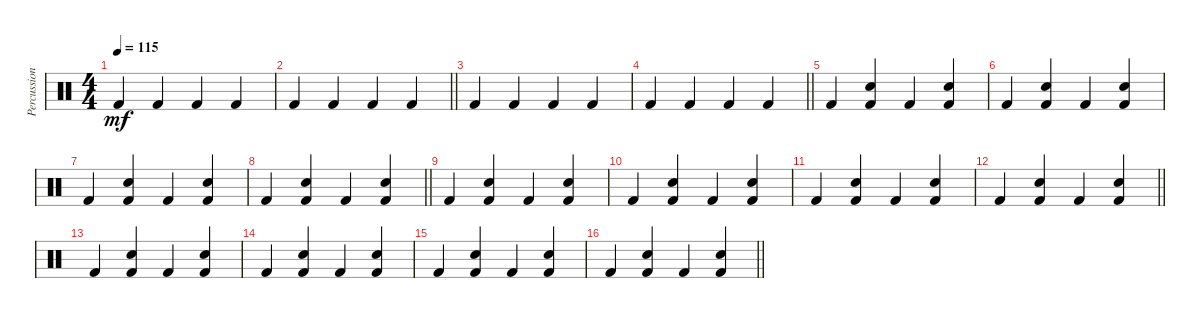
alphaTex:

\track ("Percussion" "Percussion") {instrument percussion}
\staff {score}
\articulation defaults
\ts (4 4)
\tempo 115
\clef neutral
\ks c "Kick (hit) 2".4{dy mf} "Kick (hit) 2".4 "Kick (hit) 2".4 "Kick (hit) 2".4
|
\barLineRight lightlight "Kick (hit) 2".4 "Kick (hit) 2".4 "Kick (hit) 2".4 "Kick (hit) 2".4
|
"Kick (hit) 2".4 "Kick (hit) 2".4 "Kick (hit) 2".4 "Kick (hit) 2".4 |
\barLineRight lightlight "Kick (hit) 2".4 "Kick (hit) 2".4 "Kick (hit) 2".4 "Kick (hit) 2".4
|
"Kick (hit) 2".4 ("Kick (hit) 2" "Snare (hit) 2").4 "Kick (hit) 2".4 ("Kick (hit) 2" "Snare (hit) 2").4 |
"Kick (hit) 2".4 ("Kick (hit) 2" "Snare (hit) 2").4 "Kick (hit) 2".4 ("Kick (hit) 2" "Snare (hit) 2").4 |
"Kick (hit) 2".4 ("Kick (hit) 2" "Snare (hit) 2").4 "Kick (hit) 2".4 ("Kick (hit) 2" "Snare (hit) 2").4 |
\barLineRight lightlight "Kick (hit) 2".4
("Kick (hit) 2" "Snare (hit) 2").4 "Kick (hit) 2".4 ("Kick (hit) 2" "Snare (hit) 2").4 |
"Kick (hit) 2".4 ("Kick (hit) 2" "Snare (hit) 2").4 "Kick (hit) 2".4 ("Kick (hit) 2" "Snare (hit) 2").4 |
"Kick (hit) 2".4 ("Kick (hit) 2" "Snare (hit) 2").4 "Kick (hit) 2".4 ("Kick (hit) 2" "Snare (hit) 2").4 |
"Kick (hit) 2".4 ("Kick (hit) 2" "Snare (hit) 2").4 "Kick (hit) 2".4 ("Kick (hit) 2" "Snare (hit) 2").4 |
\barLineRight lightlight "Kick (hit) 2".4
("Kick (hit) 2" "Snare (hit) 2").4 "Kick (hit) 2".4 ("Kick (hit) 2" "Snare (hit) 2").4 |
"Kick (hit) 2".4 ("Kick (hit) 2" "Snare (hit) 2").4 "Kick (hit) 2".4 ("Kick (hit) 2" "Snare (hit) 2").4 |
"Kick (hit) 2".4 ("Kick (hit) 2" "Snare (hit) 2").4 "Kick (hit) 2".4 ("Kick (hit) 2" "Snare (hit) 2").4 |
"Kick (hit) 2".4 ("Kick (hit) 2" "Snare (hit) 2").4 "Kick (hit) 2".4 ("Kick (hit) 2" "Snare (hit) 2").4 |
\barLineRight lightlight "Kick (hit) 2".4
("Kick (hit) 2" "Snare (hit) 2").4 "Kick (hit) 2".4 ("Kick (hit) 2" "Snare (hit) 2").4
